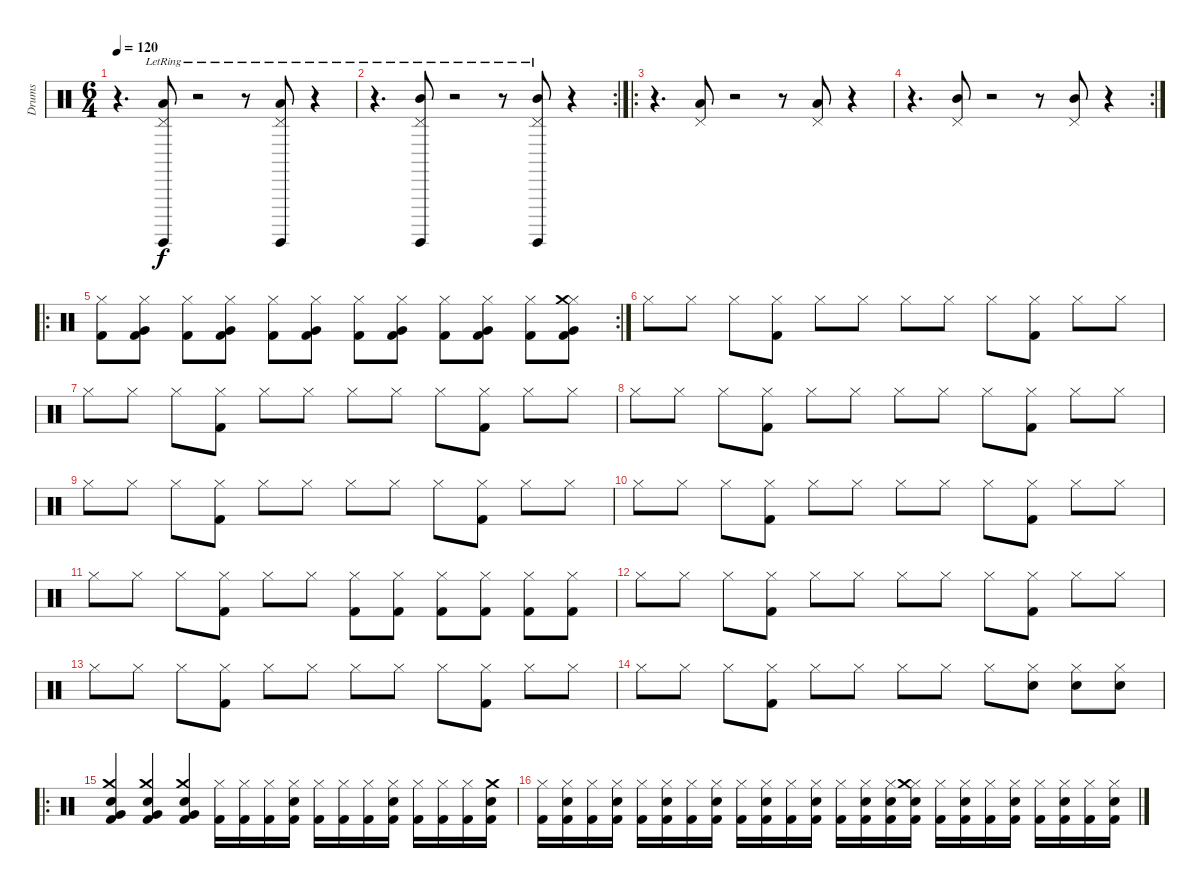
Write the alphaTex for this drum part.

\track ("Drums" "Drums") {instrument percussion}
\staff {score}
\articulation defaults
\ts (6 4)
\tempo 120
\clef neutral
\ks c
r.4{d dy f} ("Pedal Hi-Hat (hit)" "Low Tom (hit)" "Surdo (hit)"{lr}).8 r.2 r.8 ("Pedal Hi-Hat (hit)" "Low Tom (hit)" "Surdo (hit)"{lr}).8 r.4 |
\rc 2
r.4{d} ("Pedal Hi-Hat (hit)" "Mid Tom (hit)" "Surdo (hit)"{lr}).8 r.2 r.8 ("Pedal Hi-Hat (hit)" "Mid Tom (hit)" "Surdo (hit)"{lr}).8 r.4 |
\ro
r.4{d} ("Pedal Hi-Hat (hit)" "Low Tom (hit)").8 r.2 r.8 ("Pedal Hi-Hat (hit)" "Low Tom (hit)").8 r.4 |
\rc 2
r.4{d} ("Pedal Hi-Hat (hit)" "Mid Tom (hit)").8 r.2 r.8 ("Pedal Hi-Hat (hit)" "Mid Tom (hit)").8 r.4 |
\ro
\rc 2
("Kick (hit) 2" "Hi-Hat (closed)").8 ("Kick (hit) 2" "Hi-Hat (closed)" "Very Low Tom (hit)").8 ("Kick (hit) 2" "Hi-Hat (closed)").8 ("Kick (hit) 2" "Hi-Hat (closed)" "Very Low Tom (hit)").8 ("Kick (hit) 2" "Hi-Hat (closed)").8 ("Kick (hit) 2" "Hi-Hat (closed)" "Very Low Tom (hit)").8 ("Kick (hit) 2" "Hi-Hat (closed)").8 ("Kick (hit) 2" "Hi-Hat (closed)" "Very Low Tom (hit)").8 ("Kick (hit) 2" "Hi-Hat (closed)").8 ("Kick (hit) 2" "Hi-Hat (closed)" "Very Low Tom (hit)").8 ("Kick (hit) 2" "Hi-Hat (closed)").8 ("Kick (hit) 2" "Hi-Hat (closed)" "Very Low Tom (hit)" "Crash medium (hit)").8 |
"Hi-Hat (closed)".8 "Hi-Hat (closed)".8 "Hi-Hat (closed)".8 ("Hi-Hat (closed)" "Kick (hit) 2").8 "Hi-Hat (closed)".8 "Hi-Hat (closed)".8 "Hi-Hat (closed)".8 "Hi-Hat (closed)".8 "Hi-Hat (closed)".8 ("Hi-Hat (closed)" "Kick (hit) 2").8 "Hi-Hat (closed)".8 "Hi-Hat (closed)".8 |
"Hi-Hat (closed)".8 "Hi-Hat (closed)".8 "Hi-Hat (closed)".8 ("Hi-Hat (closed)" "Kick (hit) 2").8 "Hi-Hat (closed)".8 "Hi-Hat (closed)".8 "Hi-Hat (closed)".8 "Hi-Hat (closed)".8 "Hi-Hat (closed)".8 ("Hi-Hat (closed)" "Kick (hit) 2").8 "Hi-Hat (closed)".8 "Hi-Hat (closed)".8 |
"Hi-Hat (closed)".8 "Hi-Hat (closed)".8 "Hi-Hat (closed)".8 ("Hi-Hat (closed)" "Kick (hit) 2").8 "Hi-Hat (closed)".8 "Hi-Hat (closed)".8 "Hi-Hat (closed)".8 "Hi-Hat (closed)".8 "Hi-Hat (closed)".8 ("Hi-Hat (closed)" "Kick (hit) 2").8 "Hi-Hat (closed)".8 "Hi-Hat (closed)".8 |
"Hi-Hat (closed)".8 "Hi-Hat (closed)".8 "Hi-Hat (closed)".8 ("Hi-Hat (closed)" "Kick (hit) 2").8 "Hi-Hat (closed)".8 "Hi-Hat (closed)".8 "Hi-Hat (closed)".8 "Hi-Hat (closed)".8 "Hi-Hat (closed)".8 ("Hi-Hat (closed)" "Kick (hit) 2").8 "Hi-Hat (closed)".8 "Hi-Hat (closed)".8 |
"Hi-Hat (closed)".8 "Hi-Hat (closed)".8 "Hi-Hat (closed)".8 ("Hi-Hat (closed)" "Kick (hit) 2").8 "Hi-Hat (closed)".8 "Hi-Hat (closed)".8 "Hi-Hat (closed)".8 "Hi-Hat (closed)".8 "Hi-Hat (closed)".8 ("Hi-Hat (closed)" "Kick (hit) 2").8 "Hi-Hat (closed)".8 "Hi-Hat (closed)".8 |
"Hi-Hat (closed)".8 "Hi-Hat (closed)".8 "Hi-Hat (closed)".8 ("Hi-Hat (closed)" "Kick (hit) 2").8 "Hi-Hat (closed)".8 "Hi-Hat (closed)".8 ("Hi-Hat (closed)" "Kick (hit) 2").8 ("Hi-Hat (closed)" "Kick (hit) 2").8 ("Hi-Hat (closed)" "Kick (hit) 2").8 ("Hi-Hat (closed)" "Kick (hit) 2").8 ("Hi-Hat (closed)" "Kick (hit) 2").8 ("Hi-Hat (closed)" "Kick (hit) 2").8 |
"Hi-Hat (closed)".8 "Hi-Hat (closed)".8 "Hi-Hat (closed)".8 ("Hi-Hat (closed)" "Kick (hit) 2").8 "Hi-Hat (closed)".8 "Hi-Hat (closed)".8 "Hi-Hat (closed)".8 "Hi-Hat (closed)".8 "Hi-Hat (closed)".8 ("Hi-Hat (closed)" "Kick (hit) 2").8 "Hi-Hat (closed)".8 "Hi-Hat (closed)".8 |
"Hi-Hat (closed)".8 "Hi-Hat (closed)".8 "Hi-Hat (closed)".8 ("Hi-Hat (closed)" "Kick (hit) 2").8 "Hi-Hat (closed)".8 "Hi-Hat (closed)".8 "Hi-Hat (closed)".8 "Hi-Hat (closed)".8 "Hi-Hat (closed)".8 ("Hi-Hat (closed)" "Kick (hit) 2").8 "Hi-Hat (closed)".8 "Hi-Hat (closed)".8 |
"Hi-Hat (closed)".8 "Hi-Hat (closed)".8 "Hi-Hat (closed)".8 ("Hi-Hat (closed)" "Kick (hit) 2").8 "Hi-Hat (closed)".8 "Hi-Hat (closed)".8 "Hi-Hat (closed)".8 "Hi-Hat (closed)".8 "Hi-Hat (closed)".8 ("Hi-Hat (closed)" "Electric Snare (hit)").8 ("Hi-Hat (closed)" "Electric Snare (hit)").8 ("Hi-Hat (closed)" "Electric Snare (hit)").8 |
\ro
("Electric Snare (hit)" "Crash medium (hit)" "Very Low Tom (hit)" "Kick (hit) 2").4 ("Electric Snare (hit)" "Crash medium (hit)" "Very Low Tom (hit)" "Kick (hit) 2").4 ("Electric Snare (hit)" "Crash medium (hit)" "Very Low Tom (hit)" "Kick (hit) 2").4 ("Kick (hit) 2" "Hi-Hat (closed)").16 ("Kick (hit) 2" "Hi-Hat (closed)").16 ("Kick (hit) 2" "Hi-Hat (closed)").16 ("Kick (hit) 2" "Hi-Hat (closed)" "Electric Snare (hit)").16 ("Kick (hit) 2" "Hi-Hat (closed)").16 ("Kick (hit) 2" "Hi-Hat (closed)").16 ("Kick (hit) 2" "Hi-Hat (closed)").16 ("Kick (hit) 2" "Hi-Hat (closed)" "Electric Snare (hit)").16 ("Kick (hit) 2" "Hi-Hat (closed)").16 ("Kick (hit) 2" "Hi-Hat (closed)").16 ("Kick (hit) 2" "Hi-Hat (closed)").16 ("Kick (hit) 2" "Crash medium (hit)" "Electric Snare (hit)").16 |
("Kick (hit) 2" "Hi-Hat (closed)").16 ("Kick (hit) 2" "Hi-Hat (closed)" "Electric Snare (hit)").16 ("Kick (hit) 2" "Hi-Hat (closed)").16 ("Kick (hit) 2" "Hi-Hat (closed)" "Electric Snare (hit)").16 ("Kick (hit) 2" "Hi-Hat (closed)").16 ("Kick (hit) 2" "Hi-Hat (closed)" "Electric Snare (hit)").16 ("Kick (hit) 2" "Hi-Hat (closed)").16 ("Kick (hit) 2" "Hi-Hat (closed)" "Electric Snare (hit)").16 ("Kick (hit) 2" "Hi-Hat (closed)").16 ("Kick (hit) 2" "Hi-Hat (closed)" "Electric Snare (hit)").16 ("Kick (hit) 2" "Hi-Hat (closed)").16 ("Kick (hit) 2" "Hi-Hat (closed)" "Electric Snare (hit)").16 ("Kick (hit) 2" "Hi-Hat (closed)").16 ("Kick (hit) 2" "Hi-Hat (closed)" "Electric Snare (hit)").16 ("Kick (hit) 2" "Hi-Hat (closed)" "Electric Snare (hit)").16 ("Kick (hit) 2" "Hi-Hat (closed)" "Electric Snare (hit)" "Crash medium (hit)").16 ("Kick (hit) 2" "Hi-Hat (closed)").16 ("Kick (hit) 2" "Hi-Hat (closed)" "Electric Snare (hit)").16 ("Kick (hit) 2" "Hi-Hat (closed)").16 ("Kick (hit) 2" "Hi-Hat (closed)" "Electric Snare (hit)").16 ("Kick (hit) 2" "Hi-Hat (closed)").16 ("Kick (hit) 2" "Hi-Hat (closed)" "Electric Snare (hit)").16 ("Kick (hit) 2" "Hi-Hat (closed)").16 ("Kick (hit) 2" "Hi-Hat (closed)" "Electric Snare (hit)").16
